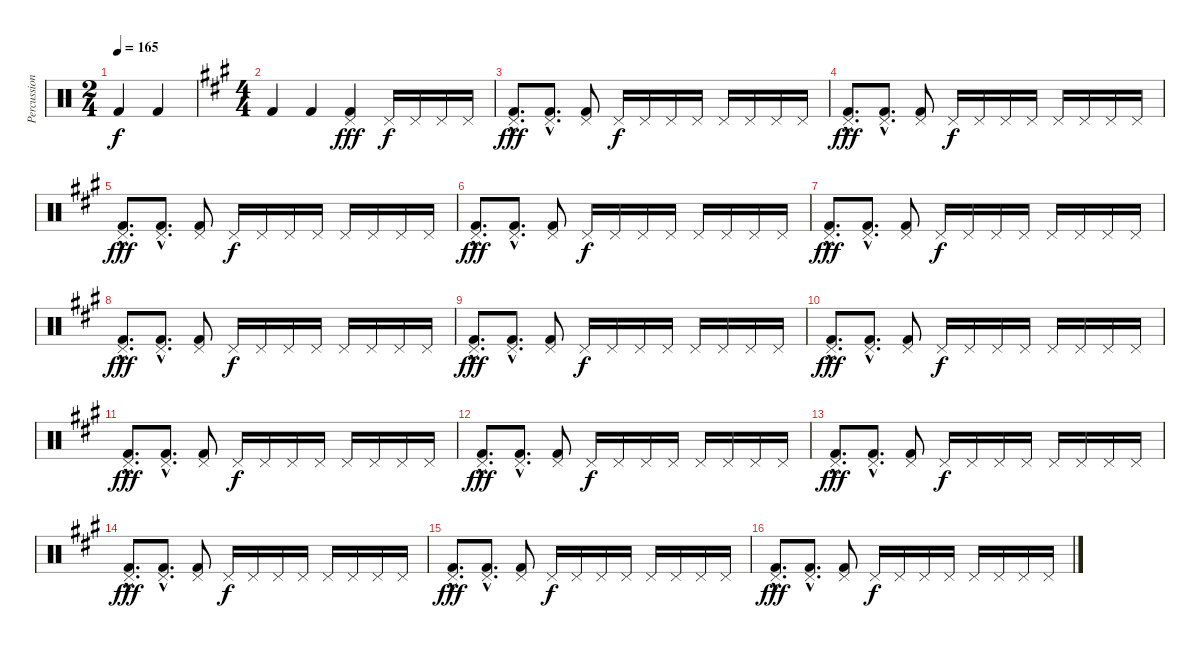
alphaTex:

\track ("Percussion" "Percussion") {instrument percussion}
\staff {score}
\articulation defaults
\ts (2 4)
\tempo 165
\clef neutral
\ks c "Kick (hit) 2".4{dy f} "Kick (hit) 2".4
|
\ts (4 4)
\ks a "Kick (hit) 2".4 "Kick (hit) 2".4
("Pedal Hi-Hat (hit)" "Kick (hit) 2").4{dy fff} "Pedal Hi-Hat (hit)".16{dy f} "Pedal Hi-Hat (hit)".16 "Pedal Hi-Hat (hit)".16 "Pedal Hi-Hat (hit)".16 |
("Pedal Hi-Hat (hit)"{hac} "Kick (hit) 2"{hac}).8{d dy fff} ("Pedal Hi-Hat (hit)"{hac} "Kick (hit) 2"{hac}).8{d} ("Pedal Hi-Hat (hit)" "Kick (hit) 2").8 "Pedal Hi-Hat (hit)".16{dy f} "Pedal Hi-Hat (hit)".16 "Pedal Hi-Hat (hit)".16 "Pedal Hi-Hat (hit)".16 "Pedal Hi-Hat (hit)".16 "Pedal Hi-Hat (hit)".16 "Pedal Hi-Hat (hit)".16 "Pedal Hi-Hat (hit)".16 |
("Pedal Hi-Hat (hit)"{hac} "Kick (hit) 2"{hac}).8{d dy fff} ("Pedal Hi-Hat (hit)"{hac} "Kick (hit) 2"{hac}).8{d} ("Pedal Hi-Hat (hit)" "Kick (hit) 2").8 "Pedal Hi-Hat (hit)".16{dy f} "Pedal Hi-Hat (hit)".16 "Pedal Hi-Hat (hit)".16 "Pedal Hi-Hat (hit)".16 "Pedal Hi-Hat (hit)".16 "Pedal Hi-Hat (hit)".16 "Pedal Hi-Hat (hit)".16 "Pedal Hi-Hat (hit)".16 |
("Pedal Hi-Hat (hit)"{hac} "Kick (hit) 2"{hac}).8{d dy fff} ("Pedal Hi-Hat (hit)"{hac} "Kick (hit) 2"{hac}).8{d} ("Pedal Hi-Hat (hit)" "Kick (hit) 2").8 "Pedal Hi-Hat (hit)".16{dy f} "Pedal Hi-Hat (hit)".16 "Pedal Hi-Hat (hit)".16 "Pedal Hi-Hat (hit)".16 "Pedal Hi-Hat (hit)".16 "Pedal Hi-Hat (hit)".16 "Pedal Hi-Hat (hit)".16 "Pedal Hi-Hat (hit)".16 |
("Pedal Hi-Hat (hit)"{hac} "Kick (hit) 2"{hac}).8{d dy fff} ("Pedal Hi-Hat (hit)"{hac} "Kick (hit) 2"{hac}).8{d} ("Pedal Hi-Hat (hit)" "Kick (hit) 2").8 "Pedal Hi-Hat (hit)".16{dy f} "Pedal Hi-Hat (hit)".16 "Pedal Hi-Hat (hit)".16 "Pedal Hi-Hat (hit)".16 "Pedal Hi-Hat (hit)".16 "Pedal Hi-Hat (hit)".16 "Pedal Hi-Hat (hit)".16 "Pedal Hi-Hat (hit)".16 |
("Pedal Hi-Hat (hit)"{hac} "Kick (hit) 2"{hac}).8{d dy fff} ("Pedal Hi-Hat (hit)"{hac} "Kick (hit) 2"{hac}).8{d} ("Pedal Hi-Hat (hit)" "Kick (hit) 2").8 "Pedal Hi-Hat (hit)".16{dy f} "Pedal Hi-Hat (hit)".16 "Pedal Hi-Hat (hit)".16 "Pedal Hi-Hat (hit)".16 "Pedal Hi-Hat (hit)".16 "Pedal Hi-Hat (hit)".16 "Pedal Hi-Hat (hit)".16 "Pedal Hi-Hat (hit)".16 |
("Pedal Hi-Hat (hit)"{hac} "Kick (hit) 2"{hac}).8{d dy fff} ("Pedal Hi-Hat (hit)"{hac} "Kick (hit) 2"{hac}).8{d} ("Pedal Hi-Hat (hit)" "Kick (hit) 2").8 "Pedal Hi-Hat (hit)".16{dy f} "Pedal Hi-Hat (hit)".16 "Pedal Hi-Hat (hit)".16 "Pedal Hi-Hat (hit)".16 "Pedal Hi-Hat (hit)".16 "Pedal Hi-Hat (hit)".16 "Pedal Hi-Hat (hit)".16 "Pedal Hi-Hat (hit)".16 |
("Pedal Hi-Hat (hit)"{hac} "Kick (hit) 2"{hac}).8{d dy fff} ("Pedal Hi-Hat (hit)"{hac} "Kick (hit) 2"{hac}).8{d} ("Pedal Hi-Hat (hit)" "Kick (hit) 2").8 "Pedal Hi-Hat (hit)".16{dy f} "Pedal Hi-Hat (hit)".16 "Pedal Hi-Hat (hit)".16 "Pedal Hi-Hat (hit)".16 "Pedal Hi-Hat (hit)".16 "Pedal Hi-Hat (hit)".16 "Pedal Hi-Hat (hit)".16 "Pedal Hi-Hat (hit)".16 |
("Pedal Hi-Hat (hit)"{hac} "Kick (hit) 2"{hac}).8{d dy fff} ("Pedal Hi-Hat (hit)"{hac} "Kick (hit) 2"{hac}).8{d} ("Pedal Hi-Hat (hit)" "Kick (hit) 2").8 "Pedal Hi-Hat (hit)".16{dy f} "Pedal Hi-Hat (hit)".16 "Pedal Hi-Hat (hit)".16 "Pedal Hi-Hat (hit)".16 "Pedal Hi-Hat (hit)".16 "Pedal Hi-Hat (hit)".16 "Pedal Hi-Hat (hit)".16 "Pedal Hi-Hat (hit)".16 |
("Pedal Hi-Hat (hit)"{hac} "Kick (hit) 2"{hac}).8{d dy fff} ("Pedal Hi-Hat (hit)"{hac} "Kick (hit) 2"{hac}).8{d} ("Pedal Hi-Hat (hit)" "Kick (hit) 2").8 "Pedal Hi-Hat (hit)".16{dy f} "Pedal Hi-Hat (hit)".16 "Pedal Hi-Hat (hit)".16 "Pedal Hi-Hat (hit)".16 "Pedal Hi-Hat (hit)".16 "Pedal Hi-Hat (hit)".16 "Pedal Hi-Hat (hit)".16 "Pedal Hi-Hat (hit)".16 |
("Pedal Hi-Hat (hit)"{hac} "Kick (hit) 2"{hac}).8{d dy fff} ("Pedal Hi-Hat (hit)"{hac} "Kick (hit) 2"{hac}).8{d} ("Pedal Hi-Hat (hit)" "Kick (hit) 2").8 "Pedal Hi-Hat (hit)".16{dy f} "Pedal Hi-Hat (hit)".16 "Pedal Hi-Hat (hit)".16 "Pedal Hi-Hat (hit)".16 "Pedal Hi-Hat (hit)".16 "Pedal Hi-Hat (hit)".16 "Pedal Hi-Hat (hit)".16 "Pedal Hi-Hat (hit)".16 |
("Pedal Hi-Hat (hit)"{hac} "Kick (hit) 2"{hac}).8{d dy fff} ("Pedal Hi-Hat (hit)"{hac} "Kick (hit) 2"{hac}).8{d} ("Pedal Hi-Hat (hit)" "Kick (hit) 2").8 "Pedal Hi-Hat (hit)".16{dy f} "Pedal Hi-Hat (hit)".16 "Pedal Hi-Hat (hit)".16 "Pedal Hi-Hat (hit)".16 "Pedal Hi-Hat (hit)".16 "Pedal Hi-Hat (hit)".16 "Pedal Hi-Hat (hit)".16 "Pedal Hi-Hat (hit)".16 |
("Pedal Hi-Hat (hit)"{hac} "Kick (hit) 2"{hac}).8{d dy fff} ("Pedal Hi-Hat (hit)"{hac} "Kick (hit) 2"{hac}).8{d} ("Pedal Hi-Hat (hit)" "Kick (hit) 2").8 "Pedal Hi-Hat (hit)".16{dy f} "Pedal Hi-Hat (hit)".16 "Pedal Hi-Hat (hit)".16 "Pedal Hi-Hat (hit)".16 "Pedal Hi-Hat (hit)".16 "Pedal Hi-Hat (hit)".16 "Pedal Hi-Hat (hit)".16 "Pedal Hi-Hat (hit)".16 |
("Pedal Hi-Hat (hit)"{hac} "Kick (hit) 2"{hac}).8{d dy fff} ("Pedal Hi-Hat (hit)"{hac} "Kick (hit) 2"{hac}).8{d} ("Pedal Hi-Hat (hit)" "Kick (hit) 2").8 "Pedal Hi-Hat (hit)".16{dy f} "Pedal Hi-Hat (hit)".16 "Pedal Hi-Hat (hit)".16 "Pedal Hi-Hat (hit)".16 "Pedal Hi-Hat (hit)".16 "Pedal Hi-Hat (hit)".16 "Pedal Hi-Hat (hit)".16 "Pedal Hi-Hat (hit)".16 |
("Pedal Hi-Hat (hit)"{hac} "Kick (hit) 2"{hac}).8{d dy fff} ("Pedal Hi-Hat (hit)"{hac} "Kick (hit) 2"{hac}).8{d} ("Pedal Hi-Hat (hit)" "Kick (hit) 2").8 "Pedal Hi-Hat (hit)".16{dy f} "Pedal Hi-Hat (hit)".16 "Pedal Hi-Hat (hit)".16 "Pedal Hi-Hat (hit)".16 "Pedal Hi-Hat (hit)".16 "Pedal Hi-Hat (hit)".16 "Pedal Hi-Hat (hit)".16 "Pedal Hi-Hat (hit)".16
